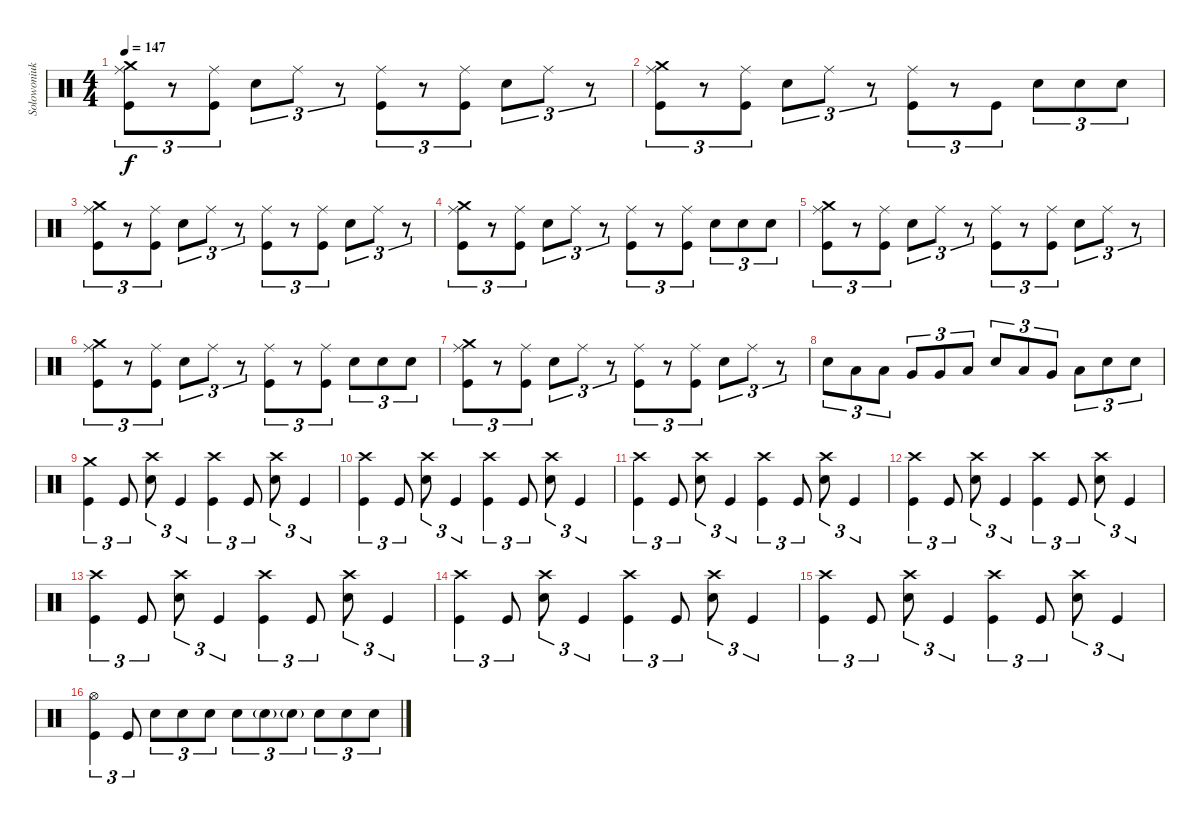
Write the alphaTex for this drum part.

\track ("Solowoniuk " "Solowoniuk") {instrument percussion}
\staff {score}
\articulation defaults
\ts (4 4)
\tempo 147
\clef neutral
\ks c
("Crash medium (hit)" "Ride (middle)" "Kick (hit)").8{tu (3 2) dy f} r.8{tu (3 2)} ("Ride (middle)" "Kick (hit)").8{tu (3 2)} "Snare (hit) 2".8{tu (3 2)} "Ride (middle)".8{tu (3 2)} r.8{tu (3 2)} ("Ride (middle)" "Kick (hit)").8{tu (3 2)} r.8{tu (3 2)} ("Ride (middle)" "Kick (hit)").8{tu (3 2)} "Snare (hit) 2".8{tu (3 2)} "Ride (middle)".8{tu (3 2)} r.8{tu (3 2)} |
("Crash medium (hit)" "Ride (middle)" "Kick (hit)").8{tu (3 2)} r.8{tu (3 2)} ("Ride (middle)" "Kick (hit)").8{tu (3 2)} "Snare (hit) 2".8{tu (3 2)} "Ride (middle)".8{tu (3 2)} r.8{tu (3 2)} ("Ride (middle)" "Kick (hit)").8{tu (3 2)} r.8{tu (3 2)} "Kick (hit)".8{tu (3 2)} "Snare (hit) 2".8{tu (3 2)} "Snare (hit) 2".8{tu (3 2)} "Snare (hit) 2".8{tu (3 2)} |
("Crash medium (hit)" "Ride (middle)" "Kick (hit)").8{tu (3 2)} r.8{tu (3 2)} ("Ride (middle)" "Kick (hit)").8{tu (3 2)} "Snare (hit) 2".8{tu (3 2)} "Ride (middle)".8{tu (3 2)} r.8{tu (3 2)} ("Ride (middle)" "Kick (hit)").8{tu (3 2)} r.8{tu (3 2)} ("Ride (middle)" "Kick (hit)").8{tu (3 2)} "Snare (hit) 2".8{tu (3 2)} "Ride (middle)".8{tu (3 2)} r.8{tu (3 2)} |
("Crash medium (hit)" "Ride (middle)" "Kick (hit)").8{tu (3 2)} r.8{tu (3 2)} ("Ride (middle)" "Kick (hit)").8{tu (3 2)} "Snare (hit) 2".8{tu (3 2)} "Ride (middle)".8{tu (3 2)} r.8{tu (3 2)} ("Ride (middle)" "Kick (hit)").8{tu (3 2)} r.8{tu (3 2)} ("Ride (middle)" "Kick (hit)").8{tu (3 2)} "Snare (hit) 2".8{tu (3 2)} "Snare (hit) 2".8{tu (3 2)} "Snare (hit) 2".8{tu (3 2)} |
("Crash medium (hit)" "Ride (middle)" "Kick (hit)").8{tu (3 2)} r.8{tu (3 2)} ("Ride (middle)" "Kick (hit)").8{tu (3 2)} "Snare (hit) 2".8{tu (3 2)} "Ride (middle)".8{tu (3 2)} r.8{tu (3 2)} ("Ride (middle)" "Kick (hit)").8{tu (3 2)} r.8{tu (3 2)} ("Ride (middle)" "Kick (hit)").8{tu (3 2)} "Snare (hit) 2".8{tu (3 2)} "Ride (middle)".8{tu (3 2)} r.8{tu (3 2)} |
("Crash medium (hit)" "Ride (middle)" "Kick (hit)").8{tu (3 2)} r.8{tu (3 2)} ("Ride (middle)" "Kick (hit)").8{tu (3 2)} "Snare (hit) 2".8{tu (3 2)} "Ride (middle)".8{tu (3 2)} r.8{tu (3 2)} ("Ride (middle)" "Kick (hit)").8{tu (3 2)} r.8{tu (3 2)} ("Ride (middle)" "Kick (hit)").8{tu (3 2)} "Snare (hit) 2".8{tu (3 2)} "Snare (hit) 2".8{tu (3 2)} "Snare (hit) 2".8{tu (3 2)} |
("Crash medium (hit)" "Ride (middle)" "Kick (hit)").8{tu (3 2)} r.8{tu (3 2)} ("Ride (middle)" "Kick (hit)").8{tu (3 2)} "Snare (hit) 2".8{tu (3 2)} "Ride (middle)".8{tu (3 2)} r.8{tu (3 2)} ("Ride (middle)" "Kick (hit)").8{tu (3 2)} r.8{tu (3 2)} ("Ride (middle)" "Kick (hit)").8{tu (3 2)} "Snare (hit) 2".8{tu (3 2)} "Ride (middle)".8{tu (3 2)} r.8{tu (3 2)} |
"Snare (hit) 2".8{tu (3 2)} "Low Tom (hit)".8{tu (3 2)} "Low Tom (hit)".8{tu (3 2)} "Very Low Tom (hit)".8{tu (3 2)} "Very Low Tom (hit)".8{tu (3 2)} "Low Floor Tom (hit)".8{tu (3 2)} "Snare (hit) 2".8{tu (3 2)} "Low Tom (hit)".8{tu (3 2)} "Very Low Tom (hit)".8{tu (3 2)} "Low Floor Tom (hit)".8{tu (3 2)} "Snare (hit) 2".8{tu (3 2)} "Snare (hit) 2".8{tu (3 2)} |
("Crash medium (hit)" "Kick (hit)").4{tu (3 2)} "Kick (hit)".8{tu (3 2)} ("Crash high (hit)" "Snare (hit) 2").8{tu (3 2)} "Kick (hit)".4{tu (3 2)} ("Crash high (hit)" "Kick (hit)").4{tu (3 2)} "Kick (hit)".8{tu (3 2)} ("Crash high (hit)" "Snare (hit) 2").8{tu (3 2)} "Kick (hit)".4{tu (3 2)} |
("Crash high (hit)" "Kick (hit)").4{tu (3 2)} "Kick (hit)".8{tu (3 2)} ("Crash high (hit)" "Snare (hit) 2").8{tu (3 2)} "Kick (hit)".4{tu (3 2)} ("Crash high (hit)" "Kick (hit)").4{tu (3 2)} "Kick (hit)".8{tu (3 2)} ("Crash high (hit)" "Snare (hit) 2").8{tu (3 2)} "Kick (hit)".4{tu (3 2)} |
("Crash high (hit)" "Kick (hit)").4{tu (3 2)} "Kick (hit)".8{tu (3 2)} ("Crash high (hit)" "Snare (hit) 2").8{tu (3 2)} "Kick (hit)".4{tu (3 2)} ("Crash high (hit)" "Kick (hit)").4{tu (3 2)} "Kick (hit)".8{tu (3 2)} ("Crash high (hit)" "Snare (hit) 2").8{tu (3 2)} "Kick (hit)".4{tu (3 2)} |
("Crash high (hit)" "Kick (hit)").4{tu (3 2)} "Kick (hit)".8{tu (3 2)} ("Crash high (hit)" "Snare (hit) 2").8{tu (3 2)} "Kick (hit)".4{tu (3 2)} ("Crash high (hit)" "Kick (hit)").4{tu (3 2)} "Kick (hit)".8{tu (3 2)} ("Crash high (hit)" "Snare (hit) 2").8{tu (3 2)} "Kick (hit)".4{tu (3 2)} |
("Crash high (hit)" "Kick (hit)").4{tu (3 2)} "Kick (hit)".8{tu (3 2)} ("Crash high (hit)" "Snare (hit) 2").8{tu (3 2)} "Kick (hit)".4{tu (3 2)} ("Crash high (hit)" "Kick (hit)").4{tu (3 2)} "Kick (hit)".8{tu (3 2)} ("Crash high (hit)" "Snare (hit) 2").8{tu (3 2)} "Kick (hit)".4{tu (3 2)} |
("Crash high (hit)" "Kick (hit)").4{tu (3 2)} "Kick (hit)".8{tu (3 2)} ("Crash high (hit)" "Snare (hit) 2").8{tu (3 2)} "Kick (hit)".4{tu (3 2)} ("Crash high (hit)" "Kick (hit)").4{tu (3 2)} "Kick (hit)".8{tu (3 2)} ("Crash high (hit)" "Snare (hit) 2").8{tu (3 2)} "Kick (hit)".4{tu (3 2)} |
("Crash high (hit)" "Kick (hit)").4{tu (3 2)} "Kick (hit)".8{tu (3 2)} ("Crash high (hit)" "Snare (hit) 2").8{tu (3 2)} "Kick (hit)".4{tu (3 2)} ("Crash high (hit)" "Kick (hit)").4{tu (3 2)} "Kick (hit)".8{tu (3 2)} ("Crash high (hit)" "Snare (hit) 2").8{tu (3 2)} "Kick (hit)".4{tu (3 2)} |
("Hi-Hat (open)" "Kick (hit)").4{tu (3 2)} "Kick (hit)".8{tu (3 2)} "Snare (hit) 2".8{tu (3 2)} "Snare (hit) 2".8{tu (3 2)} "Snare (hit) 2".8{tu (3 2)} "Snare (hit) 2".8{tu (3 2)} "Snare (hit) 2"{g}.8{tu (3 2)} "Snare (hit) 2"{g}.8{tu (3 2)} "Snare (hit) 2".8{tu (3 2)} "Snare (hit) 2".8{tu (3 2)} "Snare (hit) 2".8{tu (3 2)}
